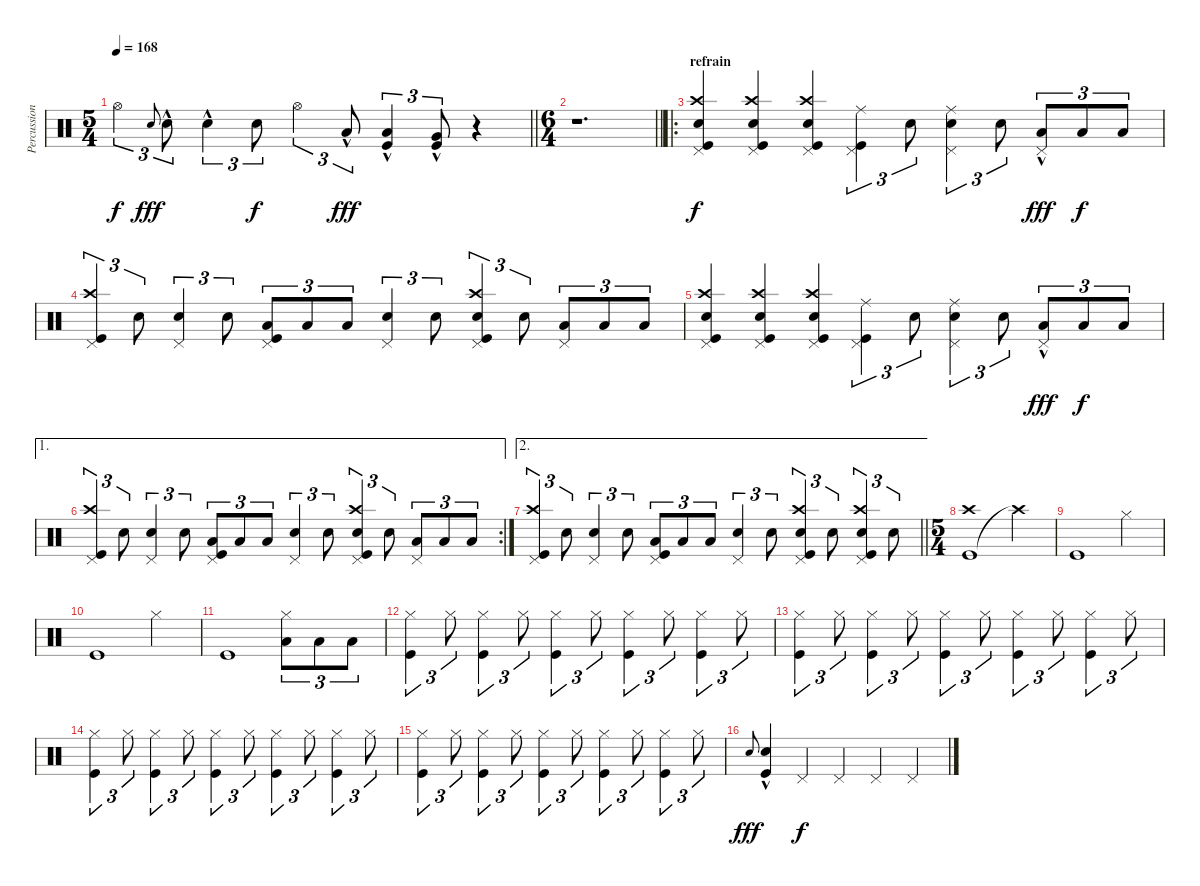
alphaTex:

\track ("Percussions" "Percussion") {instrument percussion}
\staff {score}
\articulation defaults
\ts (5 4)
\tempo 168
\clef neutral
\barLineRight lightlight
\ks c "Hi-Hat (open)".4{tu (3 2) dy f} "Snare (hit) 2".8{gr onbeat dy fff} "Snare (hit) 2"{hac}.8{tu (3 2)} "Snare (hit) 2"{hac}.4{tu (3 2)} "Snare (hit) 2".8{tu (3 2) dy f} "Hi-Hat (open)".4{tu (3 2)} "Low Tom (hit)"{hac}.8{tu (3 2) dy fff}
("Low Tom (hit)"{hac} "Kick (hit)").4{tu (3 2)} ("Very Low Tom (hit)"{hac} "Kick (hit)").8{tu (3 2)} r.4 |
\ts (6 4)
\barLineRight lightlight
r.1{d} |
\ro
\section ("" "refrain")
("Kick (hit)" "Crash high (hit)" "Snare (hit) 2" "Pedal Hi-Hat (hit)").4{dy f} ("Kick (hit)" "Crash high (hit)" "Snare (hit) 2" "Pedal Hi-Hat (hit)").4 ("Kick (hit)" "Crash high (hit)" "Snare (hit) 2" "Pedal Hi-Hat (hit)").4 ("Kick (hit)" "Ride (middle)" "Pedal Hi-Hat (hit)").4{tu (3 2)} "Snare (hit) 2".8{tu (3 2)} ("Snare (hit) 2" "Ride (middle)" "Pedal Hi-Hat (hit)").4{tu (3 2)} "Snare (hit) 2".8{tu (3 2) beam split} ("Low Tom (hit)" "Pedal Hi-Hat (hit)"{hac}).8{tu (3 2) dy fff} "Low Tom (hit)".8{tu (3 2) dy f} "Low Tom (hit)".8{tu (3 2)} |
("Kick (hit)" "Crash high (hit)" "Pedal Hi-Hat (hit)").4{tu (3 2)} "Snare (hit) 2".8{tu (3 2)} ("Snare (hit) 2" "Pedal Hi-Hat (hit)").4{tu (3 2)} "Snare (hit) 2".8{tu (3 2) beam split} ("Low Tom (hit)" "Kick (hit)" "Pedal Hi-Hat (hit)").8{tu (3 2)} "Low Tom (hit)".8{tu (3 2)} "Low Tom (hit)".8{tu (3 2)} ("Snare (hit) 2" "Pedal Hi-Hat (hit)").4{tu (3 2)} "Snare (hit) 2".8{tu (3 2)} ("Kick (hit)" "Crash high (hit)" "Snare (hit) 2" "Pedal Hi-Hat (hit)").4{tu (3 2)} "Snare (hit) 2".8{tu (3 2) beam split} ("Low Tom (hit)" "Pedal Hi-Hat (hit)").8{tu (3 2)} "Low Tom (hit)".8{tu (3 2)} "Low Tom (hit)".8{tu (3 2)} |
("Kick (hit)" "Crash high (hit)" "Snare (hit) 2" "Pedal Hi-Hat (hit)").4 ("Kick (hit)" "Crash high (hit)" "Snare (hit) 2" "Pedal Hi-Hat (hit)").4 ("Kick (hit)" "Crash high (hit)" "Snare (hit) 2" "Pedal Hi-Hat (hit)").4 ("Kick (hit)" "Ride (middle)" "Pedal Hi-Hat (hit)").4{tu (3 2)} "Snare (hit) 2".8{tu (3 2)} ("Snare (hit) 2" "Ride (middle)" "Pedal Hi-Hat (hit)").4{tu (3 2)} "Snare (hit) 2".8{tu (3 2) beam split} ("Low Tom (hit)" "Pedal Hi-Hat (hit)"{hac}).8{tu (3 2) dy fff} "Low Tom (hit)".8{tu (3 2) dy f} "Low Tom (hit)".8{tu (3 2)} |
\ae 1
\rc 2
("Kick (hit)" "Crash high (hit)" "Pedal Hi-Hat (hit)").4{tu (3 2)} "Snare (hit) 2".8{tu (3 2)} ("Snare (hit) 2" "Pedal Hi-Hat (hit)").4{tu (3 2)} "Snare (hit) 2".8{tu (3 2) beam split} ("Low Tom (hit)" "Kick (hit)" "Pedal Hi-Hat (hit)").8{tu (3 2)} "Low Tom (hit)".8{tu (3 2)} "Low Tom (hit)".8{tu (3 2)} ("Snare (hit) 2" "Pedal Hi-Hat (hit)").4{tu (3 2)} "Snare (hit) 2".8{tu (3 2)} ("Kick (hit)" "Crash high (hit)" "Snare (hit) 2" "Pedal Hi-Hat (hit)").4{tu (3 2)} "Snare (hit) 2".8{tu (3 2) beam split} ("Low Tom (hit)" "Pedal Hi-Hat (hit)").8{tu (3 2)} "Low Tom (hit)".8{tu (3 2)} "Low Tom (hit)".8{tu (3 2)} |
\ae 2
\barLineRight lightlight
("Kick (hit)" "Crash high (hit)" "Pedal Hi-Hat (hit)").4{tu (3 2)} "Snare (hit) 2".8{tu (3 2)} ("Snare (hit) 2" "Pedal Hi-Hat (hit)").4{tu (3 2)} "Snare (hit) 2".8{tu (3 2) beam split} ("Low Tom (hit)" "Kick (hit)" "Pedal Hi-Hat (hit)").8{tu (3 2)} "Low Tom (hit)".8{tu (3 2)} "Low Tom (hit)".8{tu (3 2)} ("Snare (hit) 2" "Pedal Hi-Hat (hit)").4{tu (3 2)} "Snare (hit) 2".8{tu (3 2)} ("Kick (hit)" "Crash high (hit)" "Snare (hit) 2" "Pedal Hi-Hat (hit)").4{tu (3 2)} "Snare (hit) 2".8{tu (3 2)} ("Kick (hit)" "Crash high (hit)" "Snare (hit) 2" "Pedal Hi-Hat (hit)").4{tu (3 2)} "Snare (hit) 2".8{tu (3 2)} |
\ts (5 4)
("Kick (hit)" "Crash high (hit)").1 "Crash high (hit)"{t}.4 |
"Kick (hit)".1 "Hi-Hat (closed)".4 |
"Kick (hit)".1 "Hi-Hat (closed)".4 |
"Kick (hit)".1 ("Hi-Hat (closed)" "Low Tom (hit)").8{tu (3 2)} "Low Tom (hit)".8{tu (3 2)} "Low Tom (hit)".8{tu (3 2)} |
("Kick (hit)" "Hi-Hat (closed)").4{tu (3 2)} "Hi-Hat (closed)".8{tu (3 2)} ("Kick (hit)" "Hi-Hat (closed)").4{tu (3 2)} "Hi-Hat (closed)".8{tu (3 2)} ("Kick (hit)" "Hi-Hat (closed)").4{tu (3 2)} "Hi-Hat (closed)".8{tu (3 2)} ("Kick (hit)" "Hi-Hat (closed)").4{tu (3 2)} "Hi-Hat (closed)".8{tu (3 2)} ("Kick (hit)" "Hi-Hat (closed)").4{tu (3 2)} "Hi-Hat (closed)".8{tu (3 2)} |
("Kick (hit)" "Hi-Hat (closed)").4{tu (3 2)} "Hi-Hat (closed)".8{tu (3 2)} ("Kick (hit)" "Hi-Hat (closed)").4{tu (3 2)} "Hi-Hat (closed)".8{tu (3 2)} ("Kick (hit)" "Hi-Hat (closed)").4{tu (3 2)} "Hi-Hat (closed)".8{tu (3 2)} ("Kick (hit)" "Hi-Hat (closed)").4{tu (3 2)} "Hi-Hat (closed)".8{tu (3 2)} ("Kick (hit)" "Hi-Hat (closed)").4{tu (3 2)} "Hi-Hat (closed)".8{tu (3 2)} |
("Kick (hit)" "Hi-Hat (closed)").4{tu (3 2) volume 16} "Hi-Hat (closed)".8{tu (3 2)} ("Kick (hit)" "Hi-Hat (closed)").4{tu (3 2)} "Hi-Hat (closed)".8{tu (3 2)} ("Kick (hit)" "Hi-Hat (closed)").4{tu (3 2)} "Hi-Hat (closed)".8{tu (3 2)} ("Kick (hit)" "Hi-Hat (closed)").4{tu (3 2)} "Hi-Hat (closed)".8{tu (3 2)} ("Kick (hit)" "Hi-Hat (closed)").4{tu (3 2)} "Hi-Hat (closed)".8{tu (3 2)} |
("Kick (hit)" "Hi-Hat (closed)").4{tu (3 2)} "Hi-Hat (closed)".8{tu (3 2)} ("Kick (hit)" "Hi-Hat (closed)").4{tu (3 2)} "Hi-Hat (closed)".8{tu (3 2)} ("Kick (hit)" "Hi-Hat (closed)").4{tu (3 2)} "Hi-Hat (closed)".8{tu (3 2)} ("Kick (hit)" "Hi-Hat (closed)").4{tu (3 2)} "Hi-Hat (closed)".8{tu (3 2)} ("Kick (hit)" "Hi-Hat (closed)").4{tu (3 2)} "Hi-Hat (closed)".8{tu (3 2)} |
"Snare (hit) 2".8{gr onbeat dy fff} ("Snare (hit) 2"{hac} "Kick (hit)"{hac}).4 "Pedal Hi-Hat (hit)".4{dy f} "Pedal Hi-Hat (hit)".4 "Pedal Hi-Hat (hit)".4 "Pedal Hi-Hat (hit)".4
